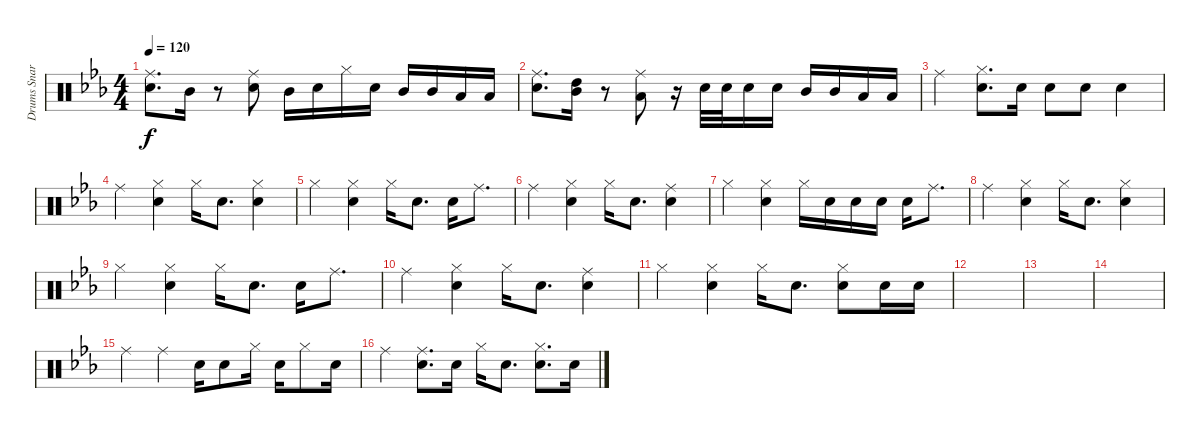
\track ("Drums Snare" "Drums Snar") {instrument percussion}
\staff {score}
\articulation defaults
\ts (4 4)
\tempo 120
\clef neutral
\ks eb
("Ride (middle)" "Snare (hit) 2").8{d dy f} "Mid Tom (hit)".16 r.8 ("Ride (middle)" "Snare (hit) 2").8 "Mid Tom (hit)".16 "Snare (hit) 2".16 "Hi-Hat (closed)".16 "Snare (hit) 2".16 "Mid Tom (hit)".16 "Mid Tom (hit)".16 "Low Tom (hit)".16 "Low Tom (hit)".16 |
("Ride (middle)" "Snare (hit) 2").8{d} ("High Tom (hit)" "Mid Tom (hit)").16 r.8 ("Ride (middle)" "Low Tom (hit)").8 r.16 "Snare (hit) 2".32 "Snare (hit) 2".32 "Snare (hit) 2".16 "Snare (hit) 2".16 "Mid Tom (hit)".16 "Mid Tom (hit)".16 "Low Tom (hit)".16 "Low Tom (hit)".16 |
"Ride (middle)".4 ("Hi-Hat (closed)" "Snare (hit) 2").8{d} "Snare (hit) 2".16 "Snare (hit) 2".8 "Snare (hit) 2".8 "Snare (hit) 2".4 |
"Ride (middle)".4 ("Hi-Hat (closed)" "Snare (hit) 2").4 "Hi-Hat (closed)".16 "Snare (hit) 2".8{d} ("Hi-Hat (closed)" "Snare (hit) 2").4 |
"Hi-Hat (closed)".4 ("Hi-Hat (closed)" "Snare (hit) 2").4 "Hi-Hat (closed)".16 "Snare (hit) 2".8{d} "Snare (hit) 2".16 "Ride (middle)".8{d} |
"Ride (middle)".4 ("Hi-Hat (closed)" "Snare (hit) 2").4 "Hi-Hat (closed)".16 "Snare (hit) 2".8{d} ("Ride (middle)" "Snare (hit) 2").4 |
"Hi-Hat (closed)".4 ("Hi-Hat (closed)" "Snare (hit) 2").4 "Hi-Hat (closed)".16 "Snare (hit) 2".16 "Snare (hit) 2".16 "Snare (hit) 2".16 "Snare (hit) 2".16 "Ride (middle)".8{d} |
"Ride (middle)".4 ("Hi-Hat (closed)" "Snare (hit) 2").4 "Hi-Hat (closed)".16 "Snare (hit) 2".8{d} ("Hi-Hat (closed)" "Snare (hit) 2").4 |
"Hi-Hat (closed)".4 ("Hi-Hat (closed)" "Snare (hit) 2").4 "Hi-Hat (closed)".16 "Snare (hit) 2".8{d} "Snare (hit) 2".16 "Ride (middle)".8{d} |
"Ride (middle)".4 ("Hi-Hat (closed)" "Snare (hit) 2").4 "Hi-Hat (closed)".16 "Snare (hit) 2".8{d} ("Ride (middle)" "Snare (hit) 2").4 |
"Hi-Hat (closed)".4 ("Hi-Hat (closed)" "Snare (hit) 2").4 "Hi-Hat (closed)".16 "Snare (hit) 2".8{d} ("Hi-Hat (closed)" "Snare (hit) 2").8 "Snare (hit) 2".16 "Snare (hit) 2".16 |
|
|
|
"Ride (middle)".4 "Ride (middle)".4 "Snare (hit) 2".16 "Snare (hit) 2".8 "Hi-Hat (closed)".16 "Snare (hit) 2".16 "Hi-Hat (closed)".8 "Snare (hit) 2".16 |
"Ride (middle)".4 ("Ride (middle)" "Snare (hit) 2").8{d} "Snare (hit) 2".16 "Hi-Hat (closed)".16 "Snare (hit) 2".8{d} ("Hi-Hat (closed)" "Snare (hit) 2").8{d} "Snare (hit) 2".16
